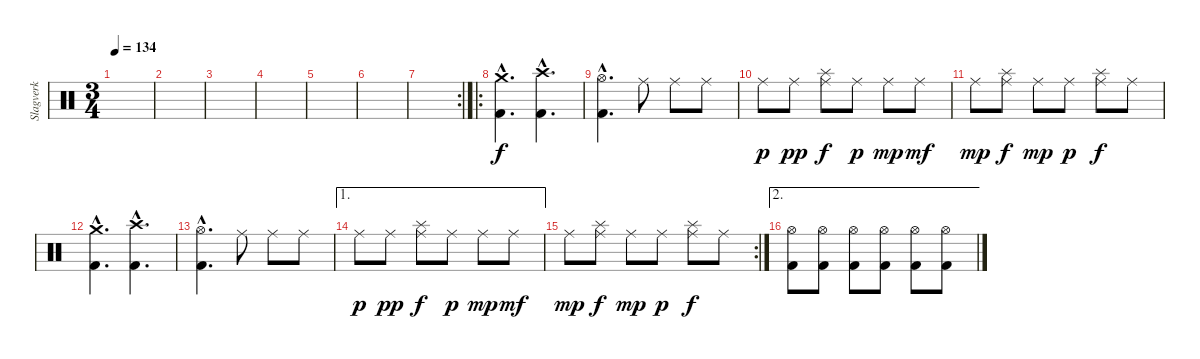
\track ("Slagverk" "Slagverk") {instrument percussion}
\staff {score}
\articulation defaults
\ts (3 4)
\tempo 134
\clef neutral
\ks c
|
|
|
|
|
|
\rc 2
|
\ro
("Kick (hit) 2"{hac} "Crash medium (hit)"{hac}).4{d} ("Kick (hit) 2"{hac} "Crash high (hit)"{hac}).4{d} |
("Kick (hit) 2"{hac} "Hi-Hat (open)"{hac}).4{d} "Ride (middle)".8 "Ride (middle)".8 "Ride (middle)".8 |
"Ride (middle)".8{dy p} "Ride (middle)".8{dy pp} ("Ride (middle)" "Splash (hit)").8{dy f} "Ride (middle)".8{dy p} "Ride (middle)".8{dy mp} "Ride (middle)".8{dy mf} |
"Ride (middle)".8{dy mp} ("Ride (middle)" "Splash (hit)").8{dy f} "Ride (middle)".8{dy mp} "Ride (middle)".8{dy p} ("Ride (middle)" "Splash (hit)").8{dy f} "Ride (middle)".8 |
("Kick (hit) 2"{hac} "Crash medium (hit)"{hac}).4{d} ("Kick (hit) 2"{hac} "Crash high (hit)"{hac}).4{d} |
("Kick (hit) 2"{hac} "Hi-Hat (open)"{hac}).4{d} "Ride (middle)".8 "Ride (middle)".8 "Ride (middle)".8 |
\ae 1 "Ride (middle)".8{dy p} "Ride (middle)".8{dy pp}
("Ride (middle)" "Splash (hit)").8{dy f} "Ride (middle)".8{dy p} "Ride (middle)".8{dy mp} "Ride (middle)".8{dy mf} |
\rc 2 "Ride (middle)".8{dy mp}
("Ride (middle)" "Splash (hit)").8{dy f} "Ride (middle)".8{dy mp} "Ride (middle)".8{dy p} ("Ride (middle)" "Splash (hit)").8{dy f} "Ride (middle)".8 |
\ae 2
("Hi-Hat (open)" "Kick (hit) 2").8{volume 6} ("Hi-Hat (open)" "Kick (hit) 2").8{volume 16} ("Hi-Hat (open)" "Kick (hit) 2").8 ("Hi-Hat (open)" "Kick (hit) 2").8 ("Hi-Hat (open)" "Kick (hit) 2").8 ("Hi-Hat (open)" "Kick (hit) 2").8
